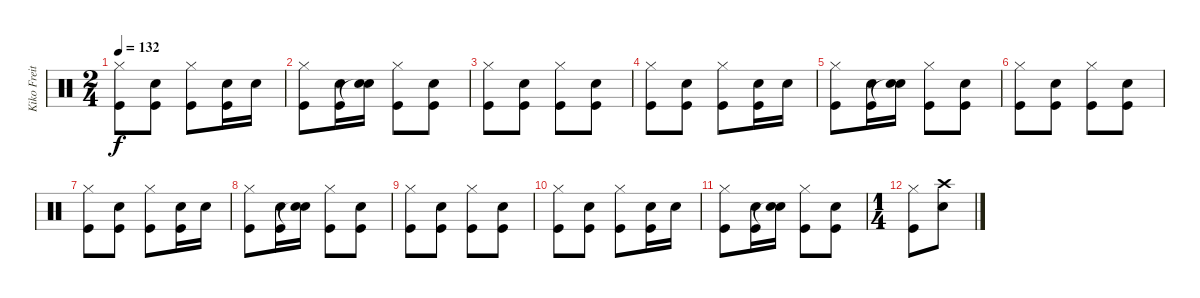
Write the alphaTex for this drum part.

\track ("Kiko Freitas" "Kiko Freit") {instrument percussion}
\staff {score}
\articulation defaults
\ts (2 4)
\tempo 132
\clef neutral
\ks c
("Kick (hit)" "Hi-Hat (closed)").8{dy f} ("Kick (hit)" "Electric Snare (hit)").8 ("Kick (hit)" "Hi-Hat (closed)").8 ("Kick (hit)" "Electric Snare (hit)").16 "Electric Snare (hit)".16 |
("Kick (hit)" "Hi-Hat (closed)").8 ("Kick (hit)" "Electric Snare (hit)").16 ("Snare (hit)"{t} "Electric Snare (hit)").16 ("Kick (hit)" "Hi-Hat (closed)").8 ("Kick (hit)" "Electric Snare (hit)").8 |
("Kick (hit)" "Hi-Hat (closed)").8 ("Kick (hit)" "Electric Snare (hit)").8 ("Kick (hit)" "Hi-Hat (closed)").8 ("Kick (hit)" "Electric Snare (hit)").8 |
("Kick (hit)" "Hi-Hat (closed)").8 ("Kick (hit)" "Electric Snare (hit)").8 ("Kick (hit)" "Hi-Hat (closed)").8 ("Kick (hit)" "Electric Snare (hit)").16 "Electric Snare (hit)".16 |
("Kick (hit)" "Hi-Hat (closed)").8 ("Kick (hit)" "Electric Snare (hit)").16 ("Snare (hit)"{t} "Electric Snare (hit)").16 ("Kick (hit)" "Hi-Hat (closed)").8 ("Kick (hit)" "Electric Snare (hit)").8 |
("Kick (hit)" "Hi-Hat (closed)").8 ("Kick (hit)" "Electric Snare (hit)").8 ("Kick (hit)" "Hi-Hat (closed)").8 ("Kick (hit)" "Electric Snare (hit)").8 |
("Kick (hit)" "Hi-Hat (closed)").8 ("Kick (hit)" "Electric Snare (hit)").8 ("Kick (hit)" "Hi-Hat (closed)").8 ("Kick (hit)" "Electric Snare (hit)").16 "Electric Snare (hit)".16 |
("Kick (hit)" "Hi-Hat (closed)").8 ("Kick (hit)" "Electric Snare (hit)").16 ("Snare (hit)"{t} "Electric Snare (hit)").16 ("Kick (hit)" "Hi-Hat (closed)").8 ("Kick (hit)" "Electric Snare (hit)").8 |
("Kick (hit)" "Hi-Hat (closed)").8 ("Kick (hit)" "Electric Snare (hit)").8 ("Kick (hit)" "Hi-Hat (closed)").8 ("Kick (hit)" "Electric Snare (hit)").8 |
("Kick (hit)" "Hi-Hat (closed)").8 ("Kick (hit)" "Electric Snare (hit)").8 ("Kick (hit)" "Hi-Hat (closed)").8 ("Kick (hit)" "Electric Snare (hit)").16 "Electric Snare (hit)".16 |
("Kick (hit)" "Hi-Hat (closed)").8 ("Kick (hit)" "Electric Snare (hit)").16 ("Snare (hit)"{t} "Electric Snare (hit)").16 ("Kick (hit)" "Hi-Hat (closed)").8 ("Kick (hit)" "Electric Snare (hit)").8 |
\ts (1 4)
("Kick (hit)" "Hi-Hat (closed)").8 ("Electric Snare (hit)" "Crash high (hit)").8
